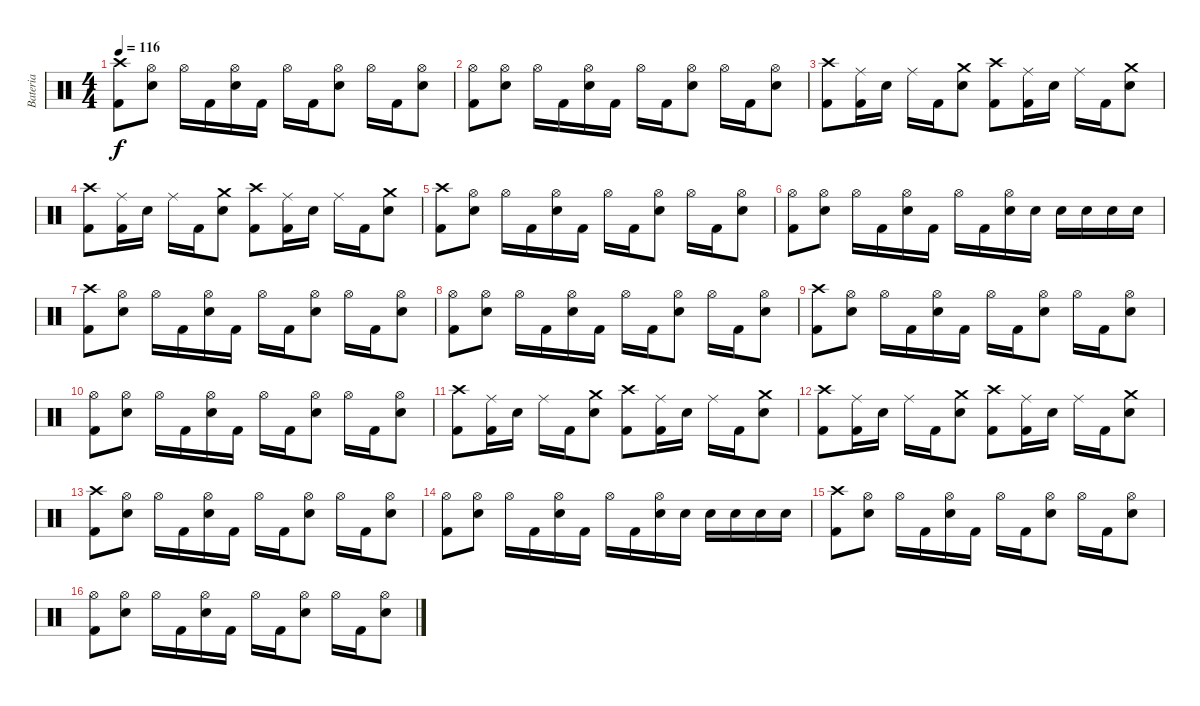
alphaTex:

\track ("Bateria" "Bateria") {instrument percussion}
\staff {score}
\articulation defaults
\ts (4 4)
\tempo 116
\clef neutral
\ks c
("Kick (hit) 2" "Crash high (hit)").8{dy f} ("Snare (hit) 2" "Hi-Hat (open)").8 "Hi-Hat (open)".16 "Kick (hit) 2".16 ("Snare (hit) 2" "Hi-Hat (open)").16 "Kick (hit) 2".16 "Hi-Hat (open)".16 "Kick (hit) 2".16 ("Snare (hit) 2" "Hi-Hat (open)").8 "Hi-Hat (open)".16 "Kick (hit) 2".16 ("Snare (hit) 2" "Hi-Hat (open)").8 |
("Kick (hit) 2" "Hi-Hat (open)").8 ("Snare (hit) 2" "Hi-Hat (open)").8 "Hi-Hat (open)".16 "Kick (hit) 2".16 ("Snare (hit) 2" "Hi-Hat (open)").16 "Kick (hit) 2".16 "Hi-Hat (open)".16 "Kick (hit) 2".16 ("Snare (hit) 2" "Hi-Hat (open)").8 "Hi-Hat (open)".16 "Kick (hit) 2".16 ("Snare (hit) 2" "Hi-Hat (open)").8 |
("Kick (hit) 2" "Crash high (hit)").8 ("Kick (hit) 2" "Ride (middle)").16 "Snare (hit) 2".16 "Ride (middle)".16 "Kick (hit) 2".16 ("Snare (hit) 2" "Crash medium (hit)").8 ("Kick (hit) 2" "Crash high (hit)").8 ("Kick (hit) 2" "Ride (middle)").16 "Snare (hit) 2".16 "Ride (middle)".16 "Kick (hit) 2".16 ("Snare (hit) 2" "Crash medium (hit)").8 |
("Kick (hit) 2" "Crash high (hit)").8 ("Kick (hit) 2" "Ride (middle)").16 "Snare (hit) 2".16 "Ride (middle)".16 "Kick (hit) 2".16 ("Snare (hit) 2" "Crash medium (hit)").8 ("Kick (hit) 2" "Crash high (hit)").8 ("Kick (hit) 2" "Ride (middle)").16 "Snare (hit) 2".16 "Ride (middle)".16 "Kick (hit) 2".16 ("Snare (hit) 2" "Crash medium (hit)").8 |
("Kick (hit) 2" "Crash high (hit)").8 ("Snare (hit) 2" "Hi-Hat (open)").8 "Hi-Hat (open)".16 "Kick (hit) 2".16 ("Snare (hit) 2" "Hi-Hat (open)").16 "Kick (hit) 2".16 "Hi-Hat (open)".16 "Kick (hit) 2".16 ("Snare (hit) 2" "Hi-Hat (open)").8 "Hi-Hat (open)".16 "Kick (hit) 2".16 ("Snare (hit) 2" "Hi-Hat (open)").8 |
("Kick (hit) 2" "Hi-Hat (open)").8 ("Snare (hit) 2" "Hi-Hat (open)").8 "Hi-Hat (open)".16 "Kick (hit) 2".16 ("Snare (hit) 2" "Hi-Hat (open)").16 "Kick (hit) 2".16 "Hi-Hat (open)".16 "Kick (hit) 2".16 ("Snare (hit) 2" "Hi-Hat (open)").16 "Snare (hit) 2".16 "Snare (hit) 2".16 "Snare (hit) 2".16 "Snare (hit) 2".16 "Snare (hit) 2".16 |
("Kick (hit) 2" "Crash high (hit)").8 ("Snare (hit) 2" "Hi-Hat (open)").8 "Hi-Hat (open)".16 "Kick (hit) 2".16 ("Snare (hit) 2" "Hi-Hat (open)").16 "Kick (hit) 2".16 "Hi-Hat (open)".16 "Kick (hit) 2".16 ("Snare (hit) 2" "Hi-Hat (open)").8 "Hi-Hat (open)".16 "Kick (hit) 2".16 ("Snare (hit) 2" "Hi-Hat (open)").8 |
("Kick (hit) 2" "Hi-Hat (open)").8 ("Snare (hit) 2" "Hi-Hat (open)").8 "Hi-Hat (open)".16 "Kick (hit) 2".16 ("Snare (hit) 2" "Hi-Hat (open)").16 "Kick (hit) 2".16 "Hi-Hat (open)".16 "Kick (hit) 2".16 ("Snare (hit) 2" "Hi-Hat (open)").8 "Hi-Hat (open)".16 "Kick (hit) 2".16 ("Snare (hit) 2" "Hi-Hat (open)").8 |
("Kick (hit) 2" "Crash high (hit)").8 ("Snare (hit) 2" "Hi-Hat (open)").8 "Hi-Hat (open)".16 "Kick (hit) 2".16 ("Snare (hit) 2" "Hi-Hat (open)").16 "Kick (hit) 2".16 "Hi-Hat (open)".16 "Kick (hit) 2".16 ("Snare (hit) 2" "Hi-Hat (open)").8 "Hi-Hat (open)".16 "Kick (hit) 2".16 ("Snare (hit) 2" "Hi-Hat (open)").8 |
("Kick (hit) 2" "Hi-Hat (open)").8 ("Snare (hit) 2" "Hi-Hat (open)").8 "Hi-Hat (open)".16 "Kick (hit) 2".16 ("Snare (hit) 2" "Hi-Hat (open)").16 "Kick (hit) 2".16 "Hi-Hat (open)".16 "Kick (hit) 2".16 ("Snare (hit) 2" "Hi-Hat (open)").8 "Hi-Hat (open)".16 "Kick (hit) 2".16 ("Snare (hit) 2" "Hi-Hat (open)").8 |
("Kick (hit) 2" "Crash high (hit)").8 ("Kick (hit) 2" "Ride (middle)").16 "Snare (hit) 2".16 "Ride (middle)".16 "Kick (hit) 2".16 ("Snare (hit) 2" "Crash medium (hit)").8 ("Kick (hit) 2" "Crash high (hit)").8 ("Kick (hit) 2" "Ride (middle)").16 "Snare (hit) 2".16 "Ride (middle)".16 "Kick (hit) 2".16 ("Snare (hit) 2" "Crash medium (hit)").8 |
("Kick (hit) 2" "Crash high (hit)").8 ("Kick (hit) 2" "Ride (middle)").16 "Snare (hit) 2".16 "Ride (middle)".16 "Kick (hit) 2".16 ("Snare (hit) 2" "Crash medium (hit)").8 ("Kick (hit) 2" "Crash high (hit)").8 ("Kick (hit) 2" "Ride (middle)").16 "Snare (hit) 2".16 "Ride (middle)".16 "Kick (hit) 2".16 ("Snare (hit) 2" "Crash medium (hit)").8 |
("Kick (hit) 2" "Crash high (hit)").8 ("Snare (hit) 2" "Hi-Hat (open)").8 "Hi-Hat (open)".16 "Kick (hit) 2".16 ("Snare (hit) 2" "Hi-Hat (open)").16 "Kick (hit) 2".16 "Hi-Hat (open)".16 "Kick (hit) 2".16 ("Snare (hit) 2" "Hi-Hat (open)").8 "Hi-Hat (open)".16 "Kick (hit) 2".16 ("Snare (hit) 2" "Hi-Hat (open)").8 |
("Kick (hit) 2" "Hi-Hat (open)").8 ("Snare (hit) 2" "Hi-Hat (open)").8 "Hi-Hat (open)".16 "Kick (hit) 2".16 ("Snare (hit) 2" "Hi-Hat (open)").16 "Kick (hit) 2".16 "Hi-Hat (open)".16 "Kick (hit) 2".16 ("Snare (hit) 2" "Hi-Hat (open)").16 "Snare (hit) 2".16 "Snare (hit) 2".16 "Snare (hit) 2".16 "Snare (hit) 2".16 "Snare (hit) 2".16 |
("Kick (hit) 2" "Crash high (hit)").8 ("Snare (hit) 2" "Hi-Hat (open)").8 "Hi-Hat (open)".16 "Kick (hit) 2".16 ("Snare (hit) 2" "Hi-Hat (open)").16 "Kick (hit) 2".16 "Hi-Hat (open)".16 "Kick (hit) 2".16 ("Snare (hit) 2" "Hi-Hat (open)").8 "Hi-Hat (open)".16 "Kick (hit) 2".16 ("Snare (hit) 2" "Hi-Hat (open)").8 |
("Kick (hit) 2" "Hi-Hat (open)").8 ("Snare (hit) 2" "Hi-Hat (open)").8 "Hi-Hat (open)".16 "Kick (hit) 2".16 ("Snare (hit) 2" "Hi-Hat (open)").16 "Kick (hit) 2".16 "Hi-Hat (open)".16 "Kick (hit) 2".16 ("Snare (hit) 2" "Hi-Hat (open)").8 "Hi-Hat (open)".16 "Kick (hit) 2".16 ("Snare (hit) 2" "Hi-Hat (open)").8
